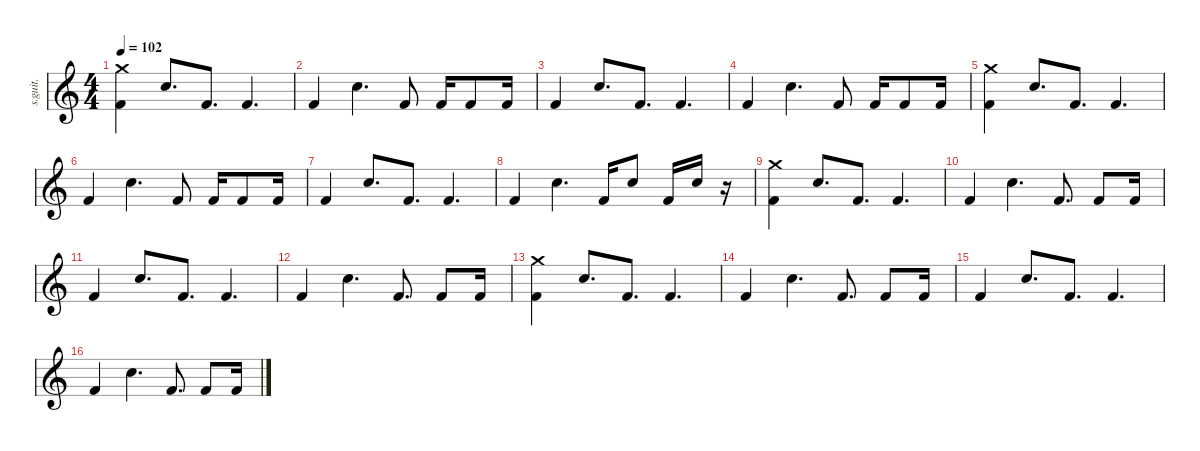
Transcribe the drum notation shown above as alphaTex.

\defaultSystemsLayout 4
\hideDynamics
\bracketExtendMode nobrackets
\track ("" "s.guit.") {instrument percussion}
\staff {score}
\articulation defaults
\ts (4 4)
\beaming (8 2 2 2 2)
\tempo 102
\clef g2
\ks c
("Crash medium (hit)" "Kick (hit) 2").4{dy pp} "Electric Snare (hit)".8{d dy f} "Kick (hit) 2".8{d} "Kick (hit) 2".4{d} |
"Kick (hit) 2".4 "Electric Snare (hit)".4{d} "Kick (hit) 2".8 "Kick (hit) 2".16 "Kick (hit) 2".8 "Kick (hit) 2".16 |
"Kick (hit) 2".4 "Electric Snare (hit)".8{d} "Kick (hit) 2".8{d} "Kick (hit) 2".4{d} |
"Kick (hit) 2".4 "Electric Snare (hit)".4{d} "Kick (hit) 2".8 "Kick (hit) 2".16 "Kick (hit) 2".8 "Kick (hit) 2".16 |
("Crash medium (hit)" "Kick (hit) 2").4{dy pp} "Electric Snare (hit)".8{d dy f} "Kick (hit) 2".8{d} "Kick (hit) 2".4{d} |
"Kick (hit) 2".4 "Electric Snare (hit)".4{d} "Kick (hit) 2".8 "Kick (hit) 2".16 "Kick (hit) 2".8 "Kick (hit) 2".16 |
"Kick (hit) 2".4 "Electric Snare (hit)".8{d} "Kick (hit) 2".8{d} "Kick (hit) 2".4{d} |
"Kick (hit) 2".4 "Electric Snare (hit)".4{d} "Kick (hit) 2".16 "Electric Snare (hit)".8 "Kick (hit) 2".16 "Electric Snare (hit)".16 r.16 |
("Crash medium (hit)" "Kick (hit) 2").4{dy pp} "Electric Snare (hit)".8{d dy f} "Kick (hit) 2".8{d} "Kick (hit) 2".4{d} |
"Kick (hit) 2".4 "Electric Snare (hit)".4{d} "Kick (hit) 2".8{d} "Kick (hit) 2".8 "Kick (hit) 2".16 |
"Kick (hit) 2".4 "Electric Snare (hit)".8{d} "Kick (hit) 2".8{d} "Kick (hit) 2".4{d} |
"Kick (hit) 2".4 "Electric Snare (hit)".4{d} "Kick (hit) 2".8{d} "Kick (hit) 2".8 "Kick (hit) 2".16 |
("Crash medium (hit)" "Kick (hit) 2").4{dy pp} "Electric Snare (hit)".8{d dy f} "Kick (hit) 2".8{d} "Kick (hit) 2".4{d} |
"Kick (hit) 2".4 "Electric Snare (hit)".4{d} "Kick (hit) 2".8{d} "Kick (hit) 2".8 "Kick (hit) 2".16 |
"Kick (hit) 2".4 "Electric Snare (hit)".8{d} "Kick (hit) 2".8{d} "Kick (hit) 2".4{d} |
"Kick (hit) 2".4 "Electric Snare (hit)".4{d} "Kick (hit) 2".8{d} "Kick (hit) 2".8 "Kick (hit) 2".16
